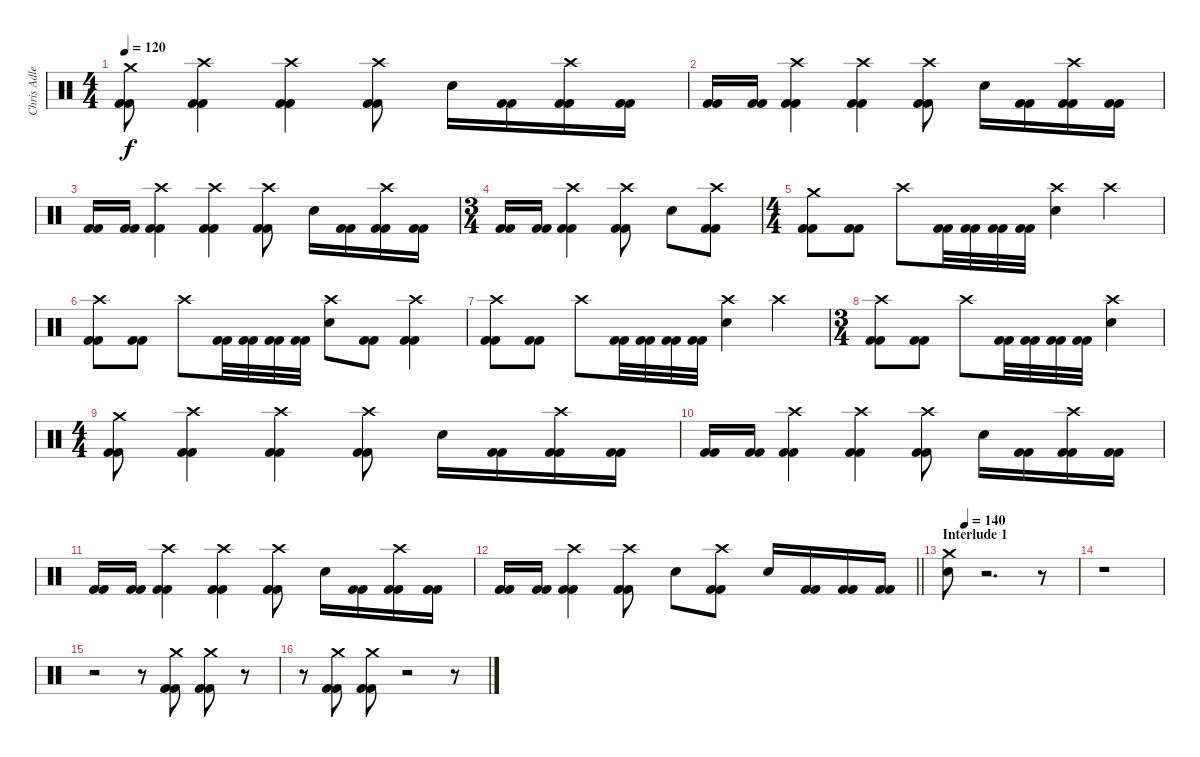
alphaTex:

\track ("Chris Adler" "Chris Adle") {instrument percussion}
\staff {score}
\articulation defaults
\ts (4 4)
\tempo 120
\clef neutral
\ks c
("Crash medium (hit)" "Kick (hit) 2" "Kick (hit) 2").8{dy f} ("Crash high (hit)" "Kick (hit) 2" "Kick (hit) 2").4 ("Crash high (hit)" "Kick (hit) 2" "Kick (hit) 2").4 ("Crash high (hit)" "Kick (hit) 2" "Kick (hit) 2").8 "Electric Snare (hit)".16 ("Kick (hit) 2" "Kick (hit) 2").16 ("Crash high (hit)" "Kick (hit) 2" "Kick (hit) 2").16 ("Kick (hit) 2" "Kick (hit) 2").16 |
("Kick (hit) 2" "Kick (hit) 2").16 ("Kick (hit) 2" "Kick (hit) 2").16 ("Crash high (hit)" "Kick (hit) 2" "Kick (hit) 2").4 ("Crash high (hit)" "Kick (hit) 2" "Kick (hit) 2").4 ("Crash high (hit)" "Kick (hit) 2" "Kick (hit) 2").8 "Electric Snare (hit)".16 ("Kick (hit) 2" "Kick (hit) 2").16 ("Crash high (hit)" "Kick (hit) 2" "Kick (hit) 2").16 ("Kick (hit) 2" "Kick (hit) 2").16 |
("Kick (hit) 2" "Kick (hit) 2").16 ("Kick (hit) 2" "Kick (hit) 2").16 ("Crash high (hit)" "Kick (hit) 2" "Kick (hit) 2").4 ("Crash high (hit)" "Kick (hit) 2" "Kick (hit) 2").4 ("Crash high (hit)" "Kick (hit) 2" "Kick (hit) 2").8 "Electric Snare (hit)".16 ("Kick (hit) 2" "Kick (hit) 2").16 ("Crash high (hit)" "Kick (hit) 2" "Kick (hit) 2").16 ("Kick (hit) 2" "Kick (hit) 2").16 |
\ts (3 4)
("Kick (hit) 2" "Kick (hit) 2").16 ("Kick (hit) 2" "Kick (hit) 2").16 ("Crash high (hit)" "Kick (hit) 2" "Kick (hit) 2").4 ("Crash high (hit)" "Kick (hit) 2" "Kick (hit) 2").8 "Electric Snare (hit)".8 ("Crash high (hit)" "Kick (hit) 2" "Kick (hit) 2").8 |
\ts (4 4)
("Crash medium (hit)" "Kick (hit) 2" "Kick (hit) 2").8 ("Kick (hit) 2" "Kick (hit) 2").8 "Crash high (hit)".8 ("Kick (hit) 2" "Kick (hit) 2").32 ("Kick (hit) 2" "Kick (hit) 2").32 ("Kick (hit) 2" "Kick (hit) 2").32 ("Kick (hit) 2" "Kick (hit) 2").32 ("Crash high (hit)" "Electric Snare (hit)").4 "Crash high (hit)".4 |
("Crash high (hit)" "Kick (hit) 2" "Kick (hit) 2").8 ("Kick (hit) 2" "Kick (hit) 2").8 "Crash high (hit)".8 ("Kick (hit) 2" "Kick (hit) 2").32 ("Kick (hit) 2" "Kick (hit) 2").32 ("Kick (hit) 2" "Kick (hit) 2").32 ("Kick (hit) 2" "Kick (hit) 2").32 ("Crash high (hit)" "Electric Snare (hit)").8 ("Kick (hit) 2" "Kick (hit) 2").8 ("Crash high (hit)" "Kick (hit) 2" "Kick (hit) 2").4 |
("Crash high (hit)" "Kick (hit) 2" "Kick (hit) 2").8 ("Kick (hit) 2" "Kick (hit) 2").8 "Crash high (hit)".8 ("Kick (hit) 2" "Kick (hit) 2").32 ("Kick (hit) 2" "Kick (hit) 2").32 ("Kick (hit) 2" "Kick (hit) 2").32 ("Kick (hit) 2" "Kick (hit) 2").32 ("Crash high (hit)" "Electric Snare (hit)").4 "Crash high (hit)".4 |
\ts (3 4)
("Crash high (hit)" "Kick (hit) 2" "Kick (hit) 2").8 ("Kick (hit) 2" "Kick (hit) 2").8 "Crash high (hit)".8 ("Kick (hit) 2" "Kick (hit) 2").32 ("Kick (hit) 2" "Kick (hit) 2").32 ("Kick (hit) 2" "Kick (hit) 2").32 ("Kick (hit) 2" "Kick (hit) 2").32 ("Crash high (hit)" "Electric Snare (hit)").4 |
\ts (4 4)
("Crash medium (hit)" "Kick (hit) 2" "Kick (hit) 2").8 ("Crash high (hit)" "Kick (hit) 2" "Kick (hit) 2").4 ("Crash high (hit)" "Kick (hit) 2" "Kick (hit) 2").4 ("Crash high (hit)" "Kick (hit) 2" "Kick (hit) 2").8 "Electric Snare (hit)".16 ("Kick (hit) 2" "Kick (hit) 2").16 ("Crash high (hit)" "Kick (hit) 2" "Kick (hit) 2").16 ("Kick (hit) 2" "Kick (hit) 2").16 |
("Kick (hit) 2" "Kick (hit) 2").16 ("Kick (hit) 2" "Kick (hit) 2").16 ("Crash high (hit)" "Kick (hit) 2" "Kick (hit) 2").4 ("Crash high (hit)" "Kick (hit) 2" "Kick (hit) 2").4 ("Crash high (hit)" "Kick (hit) 2" "Kick (hit) 2").8 "Electric Snare (hit)".16 ("Kick (hit) 2" "Kick (hit) 2").16 ("Crash high (hit)" "Kick (hit) 2" "Kick (hit) 2").16 ("Kick (hit) 2" "Kick (hit) 2").16 |
("Kick (hit) 2" "Kick (hit) 2").16 ("Kick (hit) 2" "Kick (hit) 2").16 ("Crash high (hit)" "Kick (hit) 2" "Kick (hit) 2").4 ("Crash high (hit)" "Kick (hit) 2" "Kick (hit) 2").4 ("Crash high (hit)" "Kick (hit) 2" "Kick (hit) 2").8 "Electric Snare (hit)".16 ("Kick (hit) 2" "Kick (hit) 2").16 ("Crash high (hit)" "Kick (hit) 2" "Kick (hit) 2").16 ("Kick (hit) 2" "Kick (hit) 2").16 |
\barLineRight lightlight
("Kick (hit) 2" "Kick (hit) 2").16 ("Kick (hit) 2" "Kick (hit) 2").16 ("Crash high (hit)" "Kick (hit) 2" "Kick (hit) 2").4 ("Crash high (hit)" "Kick (hit) 2" "Kick (hit) 2").8 "Electric Snare (hit)".8 ("Crash high (hit)" "Kick (hit) 2" "Kick (hit) 2").8 "Electric Snare (hit)".16 ("Kick (hit) 2" "Kick (hit) 2").16 ("Kick (hit) 2" "Kick (hit) 2").16 ("Kick (hit) 2" "Kick (hit) 2").16 |
\section ("" "Interlude 1")
\tempo (140 0.125)
("Crash medium (hit)" "Electric Snare (hit)").8 r.2{d volume 0} r.8 |
r.1 |
r.2 r.8 ("Crash medium (hit)" "Kick (hit) 2" "Kick (hit) 2").8{volume 13} ("Crash medium (hit)" "Kick (hit) 2" "Kick (hit) 2").8 r.8{volume 0} |
r.8 ("Crash medium (hit)" "Kick (hit) 2" "Kick (hit) 2").8{volume 13} ("Crash medium (hit)" "Kick (hit) 2" "Kick (hit) 2").8 r.2{volume 0} r.8
